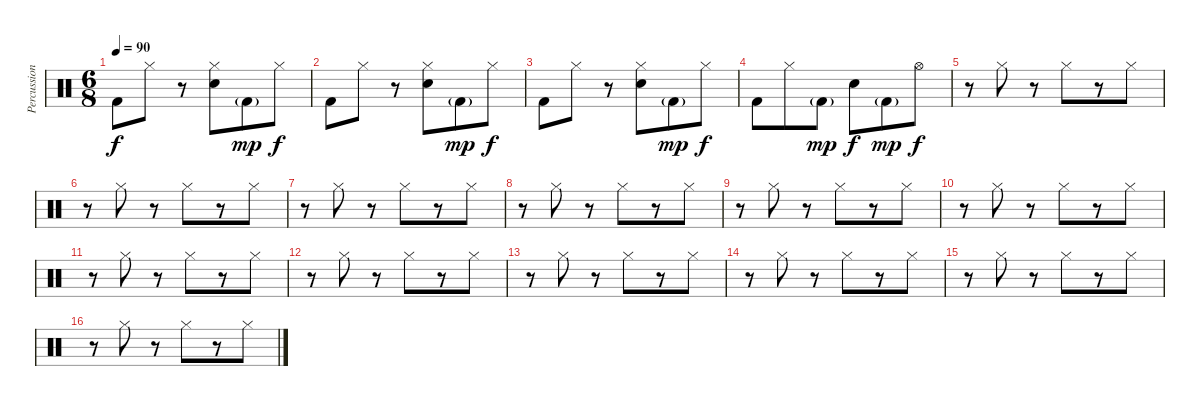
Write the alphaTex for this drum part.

\track ("Percussion" "Percussion") {instrument percussion}
\staff {score}
\articulation defaults
\ts (6 8)
\tempo 90
\clef neutral
\ks c "Kick (hit) 2".8{dy f} "Hi-Hat (closed)".8
r.8 ("Hi-Hat (closed)" "Snare (hit) 2").8 "Kick (hit) 2"{g}.8{dy mp} "Hi-Hat (closed)".8{dy f} |
"Kick (hit) 2".8 "Hi-Hat (closed)".8 r.8 ("Hi-Hat (closed)" "Snare (hit) 2").8 "Kick (hit) 2"{g}.8{dy mp} "Hi-Hat (closed)".8{dy f} |
"Kick (hit) 2".8 "Hi-Hat (closed)".8 r.8 ("Hi-Hat (closed)" "Snare (hit) 2").8 "Kick (hit) 2"{g}.8{dy mp} "Hi-Hat (closed)".8{dy f} |
"Kick (hit) 2".8 "Hi-Hat (closed)".8 "Kick (hit) 2"{g}.8{dy mp} "Snare (hit) 2".8{dy f} "Kick (hit) 2"{g}.8{dy mp} "Hi-Hat (open)".8{dy f} |
r.8 "Hi-Hat (closed)".8 r.8 "Hi-Hat (closed)".8 r.8 "Hi-Hat (closed)".8 |
r.8 "Hi-Hat (closed)".8 r.8 "Hi-Hat (closed)".8 r.8 "Hi-Hat (closed)".8 |
r.8 "Hi-Hat (closed)".8 r.8 "Hi-Hat (closed)".8 r.8 "Hi-Hat (closed)".8 |
r.8 "Hi-Hat (closed)".8 r.8 "Hi-Hat (closed)".8 r.8 "Hi-Hat (closed)".8 |
r.8 "Hi-Hat (closed)".8 r.8 "Hi-Hat (closed)".8 r.8 "Hi-Hat (closed)".8 |
r.8 "Hi-Hat (closed)".8 r.8 "Hi-Hat (closed)".8 r.8 "Hi-Hat (closed)".8 |
r.8 "Hi-Hat (closed)".8 r.8 "Hi-Hat (closed)".8 r.8 "Hi-Hat (closed)".8 |
r.8 "Hi-Hat (closed)".8 r.8 "Hi-Hat (closed)".8 r.8 "Hi-Hat (closed)".8 |
r.8 "Hi-Hat (closed)".8 r.8 "Hi-Hat (closed)".8 r.8 "Hi-Hat (closed)".8 |
r.8 "Hi-Hat (closed)".8 r.8 "Hi-Hat (closed)".8 r.8 "Hi-Hat (closed)".8 |
r.8 "Hi-Hat (closed)".8 r.8 "Hi-Hat (closed)".8 r.8 "Hi-Hat (closed)".8 |
r.8 "Hi-Hat (closed)".8 r.8 "Hi-Hat (closed)".8 r.8 "Hi-Hat (closed)".8
